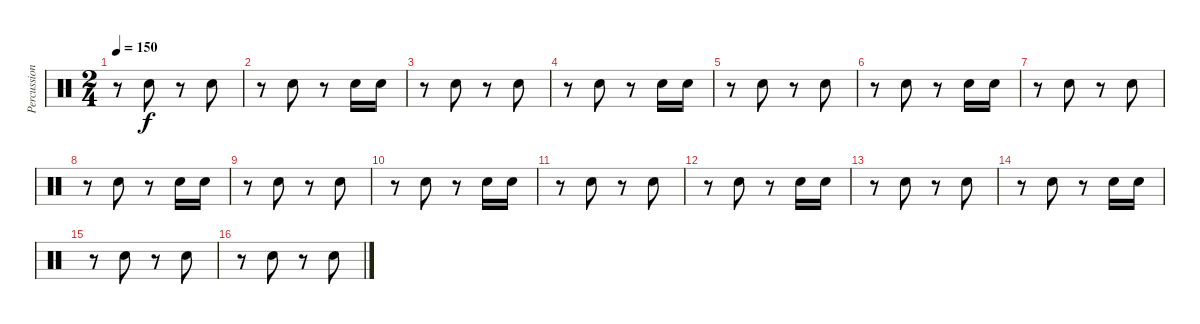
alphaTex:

\track ("Percussions" "Percussion") {instrument percussion}
\staff {score}
\articulation defaults
\ts (2 4)
\tempo 150
\clef neutral
\ks c
r.8{dy f} "Electric Snare (hit)".8 r.8 "Electric Snare (hit)".8 |
r.8 "Electric Snare (hit)".8 r.8 "Electric Snare (hit)".16 "Electric Snare (hit)".16 |
r.8 "Electric Snare (hit)".8 r.8 "Electric Snare (hit)".8 |
r.8 "Electric Snare (hit)".8 r.8 "Electric Snare (hit)".16 "Electric Snare (hit)".16 |
r.8 "Electric Snare (hit)".8 r.8 "Electric Snare (hit)".8 |
r.8 "Electric Snare (hit)".8 r.8 "Electric Snare (hit)".16 "Electric Snare (hit)".16 |
r.8 "Electric Snare (hit)".8 r.8 "Electric Snare (hit)".8 |
r.8 "Electric Snare (hit)".8 r.8 "Electric Snare (hit)".16 "Electric Snare (hit)".16 |
r.8 "Electric Snare (hit)".8 r.8 "Electric Snare (hit)".8 |
r.8 "Electric Snare (hit)".8 r.8 "Electric Snare (hit)".16 "Electric Snare (hit)".16 |
r.8 "Electric Snare (hit)".8 r.8 "Electric Snare (hit)".8 |
r.8 "Electric Snare (hit)".8 r.8 "Electric Snare (hit)".16 "Electric Snare (hit)".16 |
r.8 "Electric Snare (hit)".8 r.8 "Electric Snare (hit)".8 |
r.8 "Electric Snare (hit)".8 r.8 "Electric Snare (hit)".16 "Electric Snare (hit)".16 |
r.8 "Electric Snare (hit)".8 r.8 "Electric Snare (hit)".8 |
r.8 "Electric Snare (hit)".8 r.8 "Electric Snare (hit)".8
